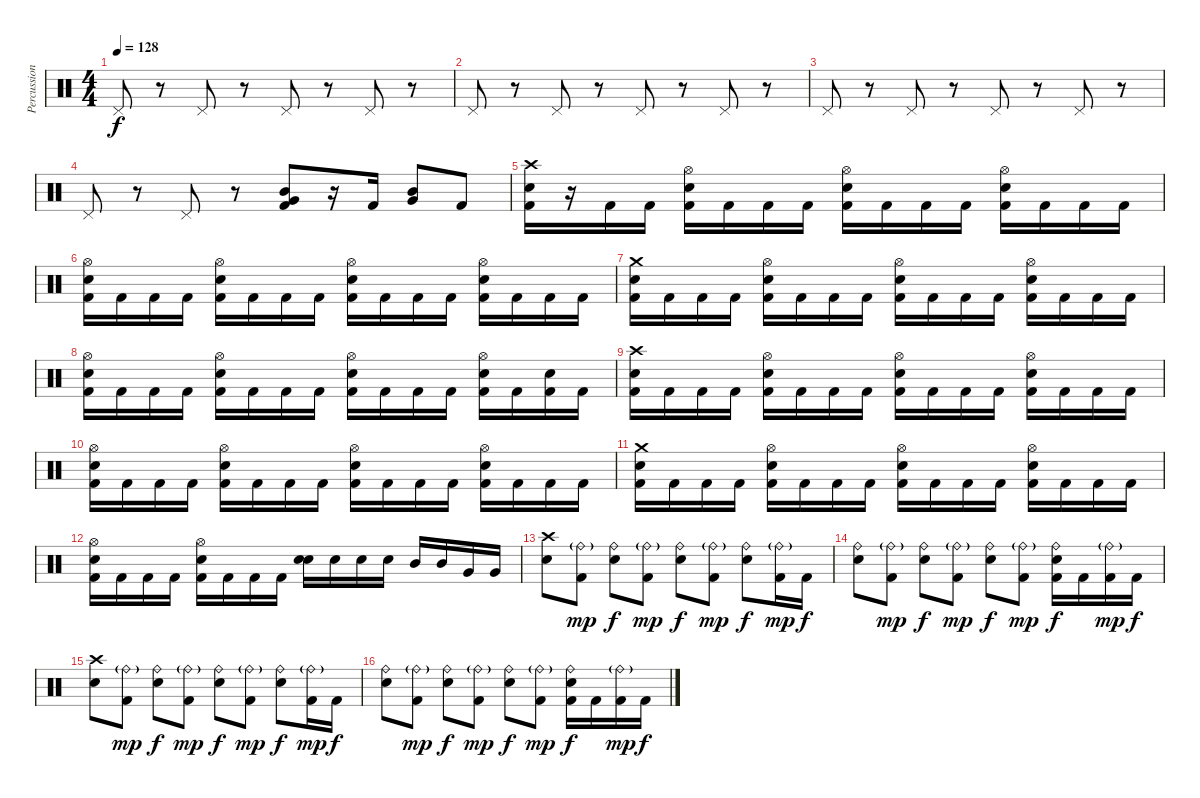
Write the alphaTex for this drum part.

\track ("Percussion" "Percussion") {instrument percussion}
\staff {score}
\articulation defaults
\ts (4 4)
\tempo 128
\clef neutral
\ks c "Pedal Hi-Hat (hit)".8{dy f}
r.8 "Pedal Hi-Hat (hit)".8 r.8 "Pedal Hi-Hat (hit)".8 r.8 "Pedal Hi-Hat (hit)".8 r.8 |
"Pedal Hi-Hat (hit)".8 r.8 "Pedal Hi-Hat (hit)".8 r.8 "Pedal Hi-Hat (hit)".8 r.8 "Pedal Hi-Hat (hit)".8 r.8 |
"Pedal Hi-Hat (hit)".8 r.8 "Pedal Hi-Hat (hit)".8 r.8 "Pedal Hi-Hat (hit)".8 r.8 "Pedal Hi-Hat (hit)".8 r.8 |
"Pedal Hi-Hat (hit)".8 r.8 "Pedal Hi-Hat (hit)".8 r.8 ("Kick (hit) 2" "Very Low Tom (hit)" "Mid Tom (hit)").8 r.16 "Kick (hit) 2".16 ("Very Low Tom (hit)" "Mid Tom (hit)").8 "Kick (hit) 2".8 |
("Kick (hit) 2" "Electric Snare (hit)" "Crash high (hit)").16 r.16 "Kick (hit) 2".16 "Kick (hit) 2".16 ("Kick (hit) 2" "Electric Snare (hit)" "Hi-Hat (open)").16 "Kick (hit) 2".16 "Kick (hit) 2".16 "Kick (hit) 2".16 ("Kick (hit) 2" "Electric Snare (hit)" "Hi-Hat (open)").16 "Kick (hit) 2".16 "Kick (hit) 2".16 "Kick (hit) 2".16 ("Kick (hit) 2" "Electric Snare (hit)" "Hi-Hat (open)").16 "Kick (hit) 2".16 "Kick (hit) 2".16 "Kick (hit) 2".16 |
("Kick (hit) 2" "Electric Snare (hit)" "Hi-Hat (open)").16 "Kick (hit) 2".16 "Kick (hit) 2".16 "Kick (hit) 2".16 ("Kick (hit) 2" "Electric Snare (hit)" "Hi-Hat (open)").16 "Kick (hit) 2".16 "Kick (hit) 2".16 "Kick (hit) 2".16 ("Kick (hit) 2" "Electric Snare (hit)" "Hi-Hat (open)").16 "Kick (hit) 2".16 "Kick (hit) 2".16 "Kick (hit) 2".16 ("Kick (hit) 2" "Electric Snare (hit)" "Hi-Hat (open)").16 "Kick (hit) 2".16 "Kick (hit) 2".16 "Kick (hit) 2".16 |
("Kick (hit) 2" "Electric Snare (hit)" "Crash medium (hit)").16 "Kick (hit) 2".16 "Kick (hit) 2".16 "Kick (hit) 2".16 ("Kick (hit) 2" "Electric Snare (hit)" "Hi-Hat (open)").16 "Kick (hit) 2".16 "Kick (hit) 2".16 "Kick (hit) 2".16 ("Kick (hit) 2" "Electric Snare (hit)" "Hi-Hat (open)").16 "Kick (hit) 2".16 "Kick (hit) 2".16 "Kick (hit) 2".16 ("Kick (hit) 2" "Electric Snare (hit)" "Hi-Hat (open)").16 "Kick (hit) 2".16 "Kick (hit) 2".16 "Kick (hit) 2".16 |
("Kick (hit) 2" "Electric Snare (hit)" "Hi-Hat (open)").16 "Kick (hit) 2".16 "Kick (hit) 2".16 "Kick (hit) 2".16 ("Kick (hit) 2" "Electric Snare (hit)" "Hi-Hat (open)").16 "Kick (hit) 2".16 "Kick (hit) 2".16 "Kick (hit) 2".16 ("Kick (hit) 2" "Electric Snare (hit)" "Hi-Hat (open)").16 "Kick (hit) 2".16 "Kick (hit) 2".16 "Kick (hit) 2".16 ("Kick (hit) 2" "Electric Snare (hit)" "Hi-Hat (open)").16 "Kick (hit) 2".16 ("Kick (hit) 2" "Electric Snare (hit)").16 "Kick (hit) 2".16 |
("Kick (hit) 2" "Electric Snare (hit)" "Crash high (hit)").16 "Kick (hit) 2".16 "Kick (hit) 2".16 "Kick (hit) 2".16 ("Kick (hit) 2" "Electric Snare (hit)" "Hi-Hat (open)").16 "Kick (hit) 2".16 "Kick (hit) 2".16 "Kick (hit) 2".16 ("Kick (hit) 2" "Electric Snare (hit)" "Hi-Hat (open)").16 "Kick (hit) 2".16 "Kick (hit) 2".16 "Kick (hit) 2".16 ("Kick (hit) 2" "Electric Snare (hit)" "Hi-Hat (open)").16 "Kick (hit) 2".16 "Kick (hit) 2".16 "Kick (hit) 2".16 |
("Kick (hit) 2" "Electric Snare (hit)" "Hi-Hat (open)").16 "Kick (hit) 2".16 "Kick (hit) 2".16 "Kick (hit) 2".16 ("Kick (hit) 2" "Electric Snare (hit)" "Hi-Hat (open)").16 "Kick (hit) 2".16 "Kick (hit) 2".16 "Kick (hit) 2".16 ("Kick (hit) 2" "Electric Snare (hit)" "Hi-Hat (open)").16 "Kick (hit) 2".16 "Kick (hit) 2".16 "Kick (hit) 2".16 ("Kick (hit) 2" "Electric Snare (hit)" "Hi-Hat (open)").16 "Kick (hit) 2".16 "Kick (hit) 2".16 "Kick (hit) 2".16 |
("Kick (hit) 2" "Electric Snare (hit)" "Crash medium (hit)").16 "Kick (hit) 2".16 "Kick (hit) 2".16 "Kick (hit) 2".16 ("Kick (hit) 2" "Electric Snare (hit)" "Hi-Hat (open)").16 "Kick (hit) 2".16 "Kick (hit) 2".16 "Kick (hit) 2".16 ("Kick (hit) 2" "Electric Snare (hit)" "Hi-Hat (open)").16 "Kick (hit) 2".16 "Kick (hit) 2".16 "Kick (hit) 2".16 ("Kick (hit) 2" "Electric Snare (hit)" "Hi-Hat (open)").16 "Kick (hit) 2".16 "Kick (hit) 2".16 "Kick (hit) 2".16 |
("Kick (hit) 2" "Electric Snare (hit)" "Hi-Hat (open)").16 "Kick (hit) 2".16 "Kick (hit) 2".16 "Kick (hit) 2".16 ("Kick (hit) 2" "Electric Snare (hit)" "Hi-Hat (open)").16 "Kick (hit) 2".16 "Kick (hit) 2".16 "Kick (hit) 2".16 ("Electric Snare (hit)" "Electric Snare (hit)").16{bd 240} "Electric Snare (hit)".16 "Electric Snare (hit)".16 "Electric Snare (hit)".16 "Mid Tom (hit)".16 "Mid Tom (hit)".16 "Very Low Tom (hit)".16 "Very Low Tom (hit)".16 |
("Electric Snare (hit)" "Crash high (hit)").8 ("Kick (hit) 2" "Ride (bell)"{g}).8{dy mp} ("Electric Snare (hit)" "Ride (bell)").8{dy f} ("Kick (hit) 2" "Ride (bell)"{g}).8{dy mp} ("Electric Snare (hit)" "Ride (bell)").8{dy f} ("Kick (hit) 2" "Ride (bell)"{g}).8{dy mp} ("Electric Snare (hit)" "Ride (bell)").8{dy f} ("Kick (hit) 2" "Ride (bell)"{g}).16{dy mp} "Kick (hit) 2".16{dy f} |
("Electric Snare (hit)" "Ride (bell)").8 ("Kick (hit) 2" "Ride (bell)"{g}).8{dy mp} ("Electric Snare (hit)" "Ride (bell)").8{dy f} ("Kick (hit) 2" "Ride (bell)"{g}).8{dy mp} ("Electric Snare (hit)" "Ride (bell)").8{dy f} ("Kick (hit) 2" "Ride (bell)"{g}).8{dy mp} ("Kick (hit) 2" "Electric Snare (hit)" "Ride (bell)").16{dy f} "Kick (hit) 2".16 ("Kick (hit) 2" "Ride (bell)"{g}).16{dy mp} "Kick (hit) 2".16{dy f} |
("Electric Snare (hit)" "Crash high (hit)").8 ("Kick (hit) 2" "Ride (bell)"{g}).8{dy mp} ("Electric Snare (hit)" "Ride (bell)").8{dy f} ("Kick (hit) 2" "Ride (bell)"{g}).8{dy mp} ("Electric Snare (hit)" "Ride (bell)").8{dy f} ("Kick (hit) 2" "Ride (bell)"{g}).8{dy mp} ("Electric Snare (hit)" "Ride (bell)").8{dy f} ("Kick (hit) 2" "Ride (bell)"{g}).16{dy mp} "Kick (hit) 2".16{dy f} |
("Electric Snare (hit)" "Ride (bell)").8 ("Kick (hit) 2" "Ride (bell)"{g}).8{dy mp} ("Electric Snare (hit)" "Ride (bell)").8{dy f} ("Kick (hit) 2" "Ride (bell)"{g}).8{dy mp} ("Electric Snare (hit)" "Ride (bell)").8{dy f} ("Kick (hit) 2" "Ride (bell)"{g}).8{dy mp} ("Kick (hit) 2" "Electric Snare (hit)" "Ride (bell)").16{dy f} "Kick (hit) 2".16 ("Kick (hit) 2" "Ride (bell)"{g}).16{dy mp} "Kick (hit) 2".16{dy f}
